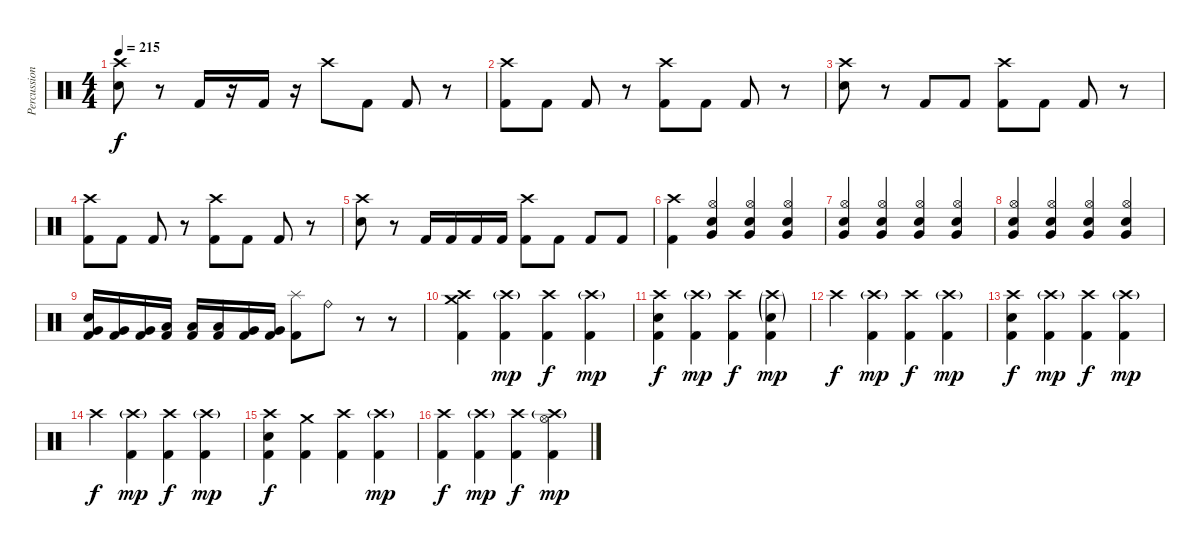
\track ("Percussion" "Percussion") {instrument percussion}
\staff {score}
\articulation defaults
\ts (4 4)
\tempo 215
\clef neutral
\ks c
("Crash high (hit)" "Electric Snare (hit)").8{dy f} r.8 "Kick (hit) 2".16 r.16 "Kick (hit) 2".16 r.16 "Crash high (hit)".8 "Kick (hit) 2".8 "Kick (hit) 2".8 r.8 |
("Crash high (hit)" "Kick (hit) 2").8 "Kick (hit) 2".8 "Kick (hit) 2".8 r.8 ("Crash high (hit)" "Kick (hit) 2").8 "Kick (hit) 2".8 "Kick (hit) 2".8 r.8 |
("Crash high (hit)" "Electric Snare (hit)").8 r.8 "Kick (hit) 2".8 "Kick (hit) 2".8 ("Crash high (hit)" "Kick (hit) 2").8 "Kick (hit) 2".8 "Kick (hit) 2".8 r.8 |
("Crash high (hit)" "Kick (hit) 2").8 "Kick (hit) 2".8 "Kick (hit) 2".8 r.8 ("Crash high (hit)" "Kick (hit) 2").8 "Kick (hit) 2".8 "Kick (hit) 2".8 r.8 |
("Crash high (hit)" "Electric Snare (hit)").8 r.8 "Kick (hit) 2".16 "Kick (hit) 2".16 "Kick (hit) 2".16 "Kick (hit) 2".16 ("Crash high (hit)" "Kick (hit) 2").8 "Kick (hit) 2".8 "Kick (hit) 2".8 "Kick (hit) 2".8 |
("Crash high (hit)" "Kick (hit) 2").4 ("Hi-Hat (open)" "Very Low Tom (hit)" "Electric Snare (hit)").4{volume 2} ("Hi-Hat (open)" "Very Low Tom (hit)" "Electric Snare (hit)").4{volume 13} ("Hi-Hat (open)" "Very Low Tom (hit)" "Electric Snare (hit)").4 |
("Hi-Hat (open)" "Very Low Tom (hit)" "Electric Snare (hit)").4 ("Hi-Hat (open)" "Very Low Tom (hit)" "Electric Snare (hit)").4 ("Hi-Hat (open)" "Very Low Tom (hit)" "Electric Snare (hit)").4 ("Hi-Hat (open)" "Very Low Tom (hit)" "Electric Snare (hit)").4 |
("Hi-Hat (open)" "Very Low Tom (hit)" "Electric Snare (hit)").4 ("Hi-Hat (open)" "Very Low Tom (hit)" "Electric Snare (hit)").4 ("Hi-Hat (open)" "Very Low Tom (hit)" "Electric Snare (hit)").4 ("Hi-Hat (open)" "Very Low Tom (hit)" "Electric Snare (hit)").4 |
("Very Low Tom (hit)" "Electric Snare (hit)" "Kick (hit) 2").16 ("Very Low Tom (hit)" "Kick (hit) 2").16 ("Very Low Tom (hit)" "Kick (hit) 2").16 ("Low Tom (hit)" "Kick (hit) 2").16 ("Low Tom (hit)" "Kick (hit) 2").16 ("Low Tom (hit)" "Kick (hit) 2").16 ("Very Low Tom (hit)" "Kick (hit) 2").16 ("Very Low Tom (hit)" "Kick (hit) 2").16 ("Splash (hit)" "Kick (hit) 2").8 "Ride (bell)".8 r.8 r.8 |
("Crash high (hit)" "Crash medium (hit)" "Kick (hit) 2").4 ("Crash high (hit)"{g} "Kick (hit) 2").4{dy mp} ("Crash high (hit)" "Kick (hit) 2").4{dy f} ("Crash high (hit)"{g} "Kick (hit) 2").4{dy mp} |
("Crash high (hit)" "Electric Snare (hit)" "Kick (hit) 2").4{dy f} ("Crash high (hit)"{g} "Kick (hit) 2").4{dy mp} ("Crash high (hit)" "Kick (hit) 2").4{dy f} ("Crash high (hit)"{g} "Electric Snare (hit)"{g} "Kick (hit) 2").4{dy mp} |
"Crash high (hit)".4{dy f} ("Crash high (hit)"{g} "Kick (hit) 2").4{dy mp} ("Crash high (hit)" "Kick (hit) 2").4{dy f} ("Crash high (hit)"{g} "Kick (hit) 2").4{dy mp} |
("Crash high (hit)" "Electric Snare (hit)" "Kick (hit) 2").4{dy f} ("Crash high (hit)"{g} "Kick (hit) 2").4{dy mp} ("Crash high (hit)" "Kick (hit) 2").4{dy f} ("Crash high (hit)"{g} "Kick (hit) 2").4{dy mp} |
"Crash high (hit)".4{dy f} ("Crash high (hit)"{g} "Kick (hit) 2").4{dy mp} ("Crash high (hit)" "Kick (hit) 2").4{dy f} ("Crash high (hit)"{g} "Kick (hit) 2").4{dy mp} |
("Crash high (hit)" "Electric Snare (hit)" "Kick (hit) 2").4{dy f} ("Crash medium (hit)" "Kick (hit) 2").4 ("Crash high (hit)" "Kick (hit) 2").4 ("Crash high (hit)"{g} "Kick (hit) 2").4{dy mp} |
("Crash high (hit)" "Kick (hit) 2").4{dy f} ("Crash high (hit)"{g} "Kick (hit) 2").4{dy mp} ("Crash high (hit)" "Kick (hit) 2").4{dy f} ("Crash high (hit)"{g} "Hi-Hat (open)" "Kick (hit) 2").4{dy mp}
